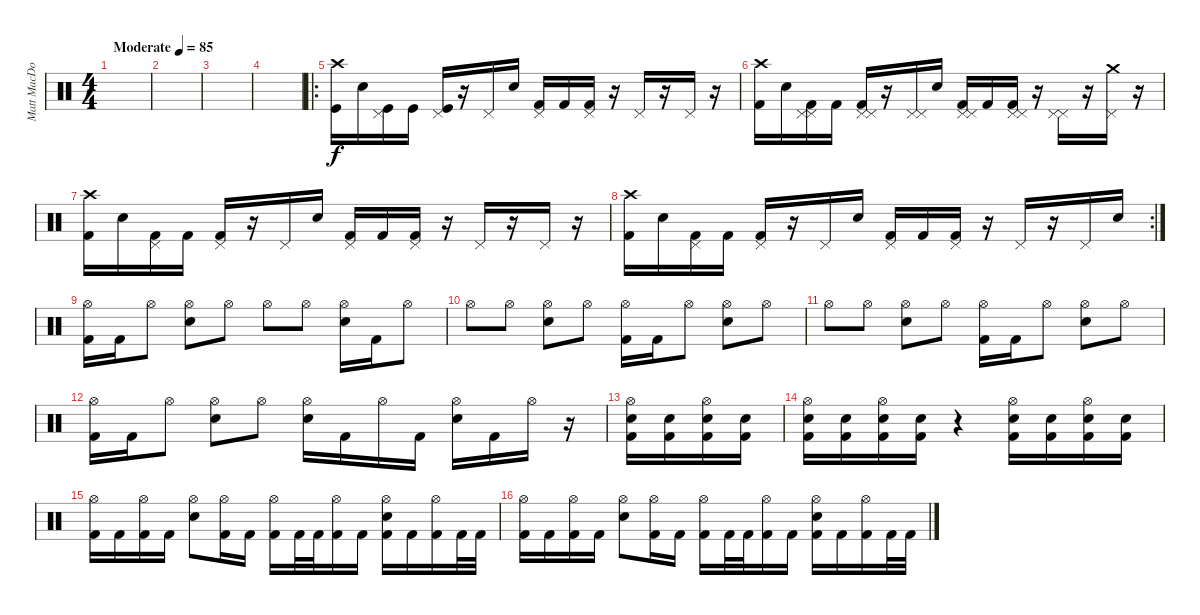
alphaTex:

\track ("Matt MacDonough" "Matt MacDo") {instrument percussion}
\staff {score}
\articulation defaults
\ts (4 4)
\tempo (85 "Moderate")
\clef neutral
\ks c
|
|
|
|
\ro
("Crash high (hit)" "Kick (hit)").16 "Electric Snare (hit)".16 ("Pedal Hi-Hat (hit)" "Kick (hit)").16 "Kick (hit)".16 ("Pedal Hi-Hat (hit)" "Kick (hit)").16 r.16 "Pedal Hi-Hat (hit)".16 "Electric Snare (hit)".16 ("Pedal Hi-Hat (hit)" "Kick (hit) 2").16 "Kick (hit) 2".16 ("Pedal Hi-Hat (hit)" "Kick (hit) 2").16 r.16 "Pedal Hi-Hat (hit)".16 r.16 "Pedal Hi-Hat (hit)".16 r.16 |
("Crash high (hit)" "Kick (hit) 2").16 "Electric Snare (hit)".16 ("Pedal Hi-Hat (hit)" "Pedal Hi-Hat (hit)" "Kick (hit) 2").16 "Kick (hit) 2".16 ("Pedal Hi-Hat (hit)" "Pedal Hi-Hat (hit)" "Kick (hit) 2").16 r.16 ("Pedal Hi-Hat (hit)" "Pedal Hi-Hat (hit)").16 "Electric Snare (hit)".16 ("Pedal Hi-Hat (hit)" "Pedal Hi-Hat (hit)" "Kick (hit) 2").16 "Kick (hit) 2".16 ("Pedal Hi-Hat (hit)" "Pedal Hi-Hat (hit)" "Kick (hit) 2").16 r.16 ("Pedal Hi-Hat (hit)" "Pedal Hi-Hat (hit)").16 r.16 ("Pedal Hi-Hat (hit)" "Crash medium (hit)").16 r.16 |
("Crash high (hit)" "Kick (hit) 2").16 "Electric Snare (hit)".16 ("Pedal Hi-Hat (hit)" "Kick (hit) 2").16 "Kick (hit) 2".16 ("Pedal Hi-Hat (hit)" "Kick (hit) 2").16 r.16 "Pedal Hi-Hat (hit)".16 "Electric Snare (hit)".16 ("Pedal Hi-Hat (hit)" "Kick (hit) 2").16 "Kick (hit) 2".16 ("Pedal Hi-Hat (hit)" "Kick (hit) 2").16 r.16 "Pedal Hi-Hat (hit)".16 r.16 "Pedal Hi-Hat (hit)".16 r.16 |
\rc 2
("Crash high (hit)" "Kick (hit) 2").16 "Electric Snare (hit)".16 ("Pedal Hi-Hat (hit)" "Kick (hit) 2").16 "Kick (hit) 2".16 ("Pedal Hi-Hat (hit)" "Kick (hit) 2").16 r.16 "Pedal Hi-Hat (hit)".16 "Electric Snare (hit)".16 ("Pedal Hi-Hat (hit)" "Kick (hit) 2").16 "Kick (hit) 2".16 ("Pedal Hi-Hat (hit)" "Kick (hit) 2").16 r.16 "Pedal Hi-Hat (hit)".16 r.16 "Pedal Hi-Hat (hit)".16 "Electric Snare (hit)".16 |
("Hi-Hat (open)" "Kick (hit) 2").16 "Kick (hit) 2".16 "Hi-Hat (open)".8 ("Hi-Hat (open)" "Electric Snare (hit)").8 "Hi-Hat (open)".8 "Hi-Hat (open)".8 "Hi-Hat (open)".8 ("Hi-Hat (open)" "Electric Snare (hit)").16 "Kick (hit) 2".16 "Hi-Hat (open)".8 |
"Hi-Hat (open)".8 "Hi-Hat (open)".8 ("Hi-Hat (open)" "Electric Snare (hit)").8 "Hi-Hat (open)".8 ("Hi-Hat (open)" "Kick (hit) 2").16 "Kick (hit) 2".16 "Hi-Hat (open)".8 ("Hi-Hat (open)" "Electric Snare (hit)").8 "Hi-Hat (open)".8 |
"Hi-Hat (open)".8 "Hi-Hat (open)".8 ("Hi-Hat (open)" "Electric Snare (hit)").8 "Hi-Hat (open)".8 ("Hi-Hat (open)" "Kick (hit) 2").16 "Kick (hit) 2".16 "Hi-Hat (open)".8 ("Hi-Hat (open)" "Electric Snare (hit)").8 "Hi-Hat (open)".8 |
("Hi-Hat (open)" "Kick (hit) 2").16 "Kick (hit) 2".16 "Hi-Hat (open)".8 ("Hi-Hat (open)" "Electric Snare (hit)").8 "Hi-Hat (open)".8 ("Hi-Hat (open)" "Electric Snare (hit)").16 "Kick (hit) 2".16 "Hi-Hat (open)".16 "Kick (hit) 2".16 ("Hi-Hat (open)" "Electric Snare (hit)").16 "Kick (hit) 2".16 "Hi-Hat (open)".16 r.16 |
("Hi-Hat (open)" "Electric Snare (hit)" "Kick (hit) 2").16 ("Electric Snare (hit)" "Kick (hit) 2").16 ("Hi-Hat (open)" "Electric Snare (hit)" "Kick (hit) 2").16 ("Electric Snare (hit)" "Kick (hit) 2").16 |
("Hi-Hat (open)" "Electric Snare (hit)" "Kick (hit) 2").16 ("Electric Snare (hit)" "Kick (hit) 2").16 ("Hi-Hat (open)" "Electric Snare (hit)" "Kick (hit) 2").16 ("Electric Snare (hit)" "Kick (hit) 2").16 r.4 ("Hi-Hat (open)" "Electric Snare (hit)" "Kick (hit) 2").16 ("Electric Snare (hit)" "Kick (hit) 2").16 ("Hi-Hat (open)" "Electric Snare (hit)" "Kick (hit) 2").16 ("Electric Snare (hit)" "Kick (hit) 2").16 |
("Hi-Hat (open)" "Kick (hit) 2").16 "Kick (hit) 2".16 ("Hi-Hat (open)" "Kick (hit) 2").16 "Kick (hit) 2".16 ("Hi-Hat (open)" "Electric Snare (hit)").8 ("Hi-Hat (open)" "Kick (hit) 2").16 "Kick (hit) 2".16 ("Hi-Hat (open)" "Kick (hit) 2").16 "Kick (hit) 2".32 "Kick (hit) 2".32 ("Hi-Hat (open)" "Kick (hit) 2").16 "Kick (hit) 2".16 ("Hi-Hat (open)" "Electric Snare (hit)" "Kick (hit) 2").16 "Kick (hit) 2".16 ("Hi-Hat (open)" "Kick (hit) 2").16 "Kick (hit) 2".32 "Kick (hit) 2".32 |
("Hi-Hat (open)" "Kick (hit) 2").16 "Kick (hit) 2".16 ("Hi-Hat (open)" "Kick (hit) 2").16 "Kick (hit) 2".16 ("Hi-Hat (open)" "Electric Snare (hit)").8 ("Hi-Hat (open)" "Kick (hit) 2").16 "Kick (hit) 2".16 ("Hi-Hat (open)" "Kick (hit) 2").16 "Kick (hit) 2".32 "Kick (hit) 2".32 ("Hi-Hat (open)" "Kick (hit) 2").16 "Kick (hit) 2".16 ("Hi-Hat (open)" "Electric Snare (hit)" "Kick (hit) 2").16 "Kick (hit) 2".16 ("Hi-Hat (open)" "Kick (hit) 2").16 "Kick (hit) 2".32 "Kick (hit) 2".32
